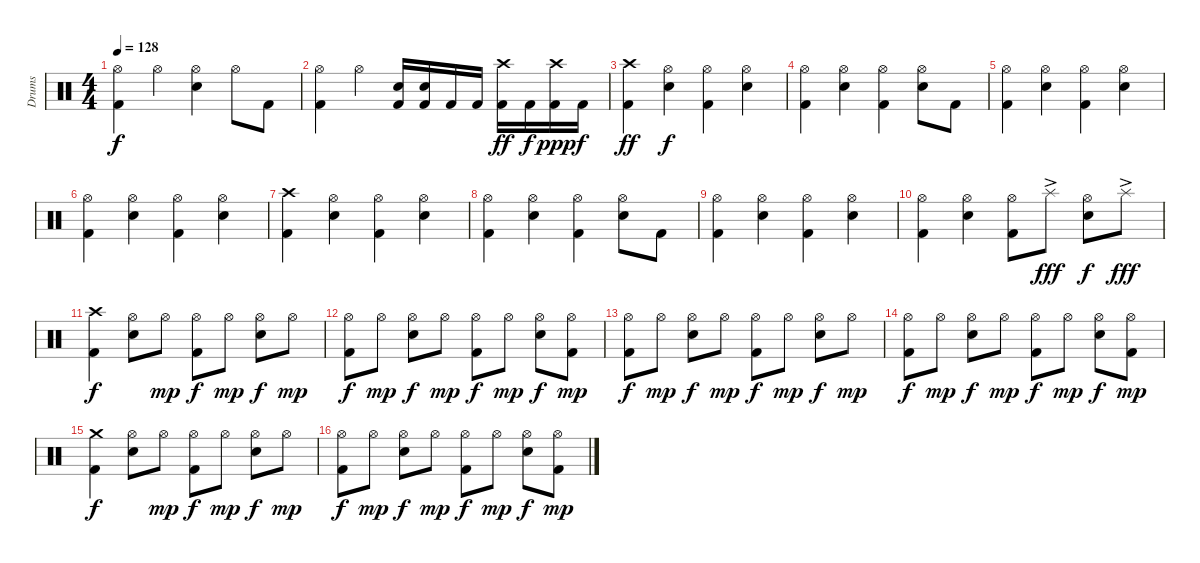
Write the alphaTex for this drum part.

\track ("Drums" "Drums") {instrument percussion}
\staff {score}
\articulation defaults
\ts (4 4)
\tempo 128
\clef neutral
\ks c
("Hi-Hat (open)" "Kick (hit) 2").4{dy f} "Hi-Hat (open)".4 ("Hi-Hat (open)" "Snare (hit) 2").4 "Hi-Hat (open)".8 "Kick (hit) 2".8 |
("Hi-Hat (open)" "Kick (hit) 2").4 "Hi-Hat (open)".4 ("Snare (hit) 2" "Kick (hit) 2").16 ("Snare (hit) 2" "Kick (hit) 2").16 "Kick (hit) 2".16 "Kick (hit) 2".16 ("Crash high (hit)" "Kick (hit) 2").16{dy ff} "Kick (hit) 2".16{dy f} ("Crash high (hit)" "Kick (hit) 2").16{dy ppp} "Kick (hit) 2".16{dy f} |
("Crash high (hit)" "Kick (hit) 2").4{dy ff} ("Hi-Hat (open)" "Snare (hit) 2").4{dy f} ("Hi-Hat (open)" "Kick (hit) 2").4 ("Hi-Hat (open)" "Snare (hit) 2").4 |
("Hi-Hat (open)" "Kick (hit) 2").4 ("Hi-Hat (open)" "Snare (hit) 2").4 ("Hi-Hat (open)" "Kick (hit) 2").4 ("Hi-Hat (open)" "Snare (hit) 2").8 "Kick (hit) 2".8 |
("Hi-Hat (open)" "Kick (hit) 2").4 ("Hi-Hat (open)" "Snare (hit) 2").4 ("Hi-Hat (open)" "Kick (hit) 2").4 ("Hi-Hat (open)" "Snare (hit) 2").4 |
("Hi-Hat (open)" "Kick (hit) 2").4 ("Hi-Hat (open)" "Snare (hit) 2").4 ("Hi-Hat (open)" "Kick (hit) 2").4 ("Hi-Hat (open)" "Snare (hit) 2").4 |
("Crash high (hit)" "Kick (hit) 2").4 ("Hi-Hat (open)" "Snare (hit) 2").4 ("Hi-Hat (open)" "Kick (hit) 2").4 ("Hi-Hat (open)" "Snare (hit) 2").4 |
("Hi-Hat (open)" "Kick (hit) 2").4 ("Hi-Hat (open)" "Snare (hit) 2").4 ("Hi-Hat (open)" "Kick (hit) 2").4 ("Hi-Hat (open)" "Snare (hit) 2").8 "Kick (hit) 2".8 |
("Hi-Hat (open)" "Kick (hit) 2").4 ("Hi-Hat (open)" "Snare (hit) 2").4 ("Hi-Hat (open)" "Kick (hit) 2").4 ("Hi-Hat (open)" "Snare (hit) 2").4 |
("Hi-Hat (open)" "Kick (hit) 2").4 ("Hi-Hat (open)" "Snare (hit) 2").4 ("Hi-Hat (open)" "Kick (hit) 2").8 "Splash (hit)"{ac}.8{dy fff} ("Hi-Hat (open)" "Snare (hit) 2").8{dy f} "Splash (hit)"{ac}.8{dy fff} |
("Crash high (hit)" "Kick (hit) 2").4{dy f} ("Hi-Hat (open)" "Snare (hit) 2").8 "Hi-Hat (open)".8{dy mp} ("Hi-Hat (open)" "Kick (hit) 2").8{dy f} "Hi-Hat (open)".8{dy mp} ("Hi-Hat (open)" "Snare (hit) 2").8{dy f} "Hi-Hat (open)".8{dy mp} |
("Hi-Hat (open)" "Kick (hit) 2").8{dy f} "Hi-Hat (open)".8{dy mp} ("Hi-Hat (open)" "Snare (hit) 2").8{dy f} "Hi-Hat (open)".8{dy mp} ("Hi-Hat (open)" "Kick (hit) 2").8{dy f} "Hi-Hat (open)".8{dy mp} ("Hi-Hat (open)" "Snare (hit) 2").8{dy f} ("Hi-Hat (open)" "Kick (hit) 2").8{dy mp} |
("Hi-Hat (open)" "Kick (hit) 2").8{dy f} "Hi-Hat (open)".8{dy mp} ("Hi-Hat (open)" "Snare (hit) 2").8{dy f} "Hi-Hat (open)".8{dy mp} ("Hi-Hat (open)" "Kick (hit) 2").8{dy f} "Hi-Hat (open)".8{dy mp} ("Hi-Hat (open)" "Snare (hit) 2").8{dy f} "Hi-Hat (open)".8{dy mp} |
("Hi-Hat (open)" "Kick (hit) 2").8{dy f} "Hi-Hat (open)".8{dy mp} ("Hi-Hat (open)" "Snare (hit) 2").8{dy f} "Hi-Hat (open)".8{dy mp} ("Hi-Hat (open)" "Kick (hit) 2").8{dy f} "Hi-Hat (open)".8{dy mp} ("Hi-Hat (open)" "Snare (hit) 2").8{dy f} ("Hi-Hat (open)" "Kick (hit) 2").8{dy mp} |
("Crash medium (hit)" "Kick (hit) 2").4{dy f} ("Hi-Hat (open)" "Snare (hit) 2").8 "Hi-Hat (open)".8{dy mp} ("Hi-Hat (open)" "Kick (hit) 2").8{dy f} "Hi-Hat (open)".8{dy mp} ("Hi-Hat (open)" "Snare (hit) 2").8{dy f} "Hi-Hat (open)".8{dy mp} |
("Hi-Hat (open)" "Kick (hit) 2").8{dy f} "Hi-Hat (open)".8{dy mp} ("Hi-Hat (open)" "Snare (hit) 2").8{dy f} "Hi-Hat (open)".8{dy mp} ("Hi-Hat (open)" "Kick (hit) 2").8{dy f} "Hi-Hat (open)".8{dy mp} ("Hi-Hat (open)" "Snare (hit) 2").8{dy f} ("Hi-Hat (open)" "Kick (hit) 2").8{dy mp}
